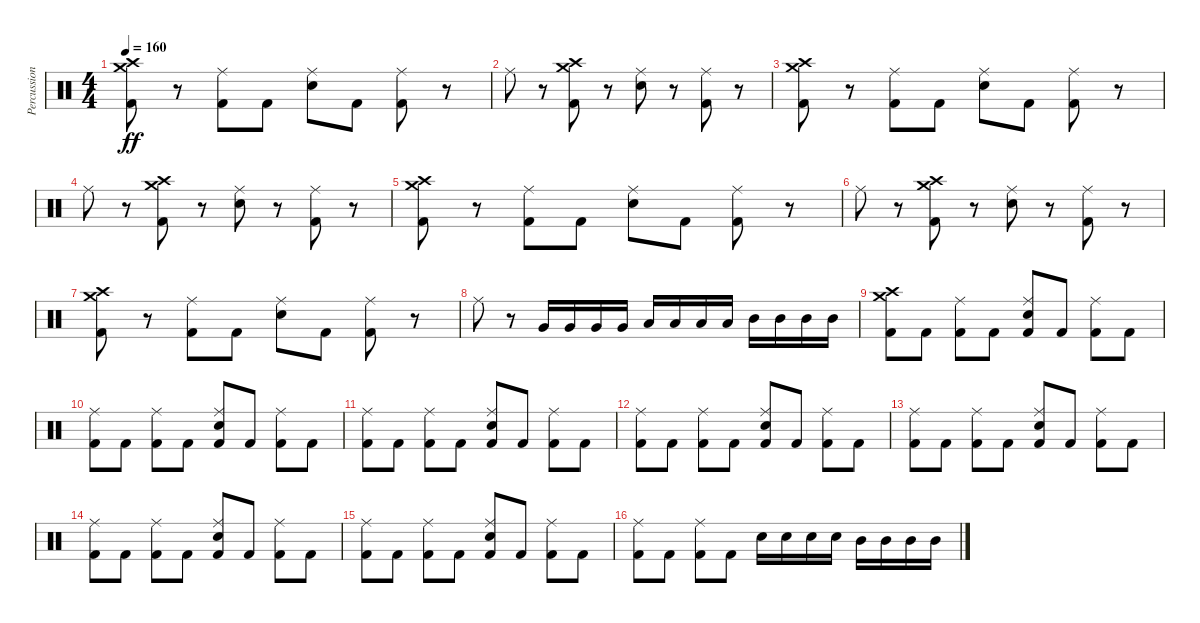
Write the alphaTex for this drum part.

\track ("Percussion" "Percussion") {instrument percussion}
\staff {score}
\articulation defaults
\ts (4 4)
\tempo 160
\clef neutral
\ks c
("Kick (hit) 2" "Crash high (hit)" "Crash medium (hit)").8{dy ff} r.8 ("Kick (hit) 2" "Ride (middle)").8 "Kick (hit) 2".8 ("Electric Snare (hit)" "Ride (middle)").8 "Kick (hit) 2".8 ("Kick (hit) 2" "Ride (middle)").8 r.8 |
"Ride (middle)".8 r.8 ("Kick (hit) 2" "Crash high (hit)" "Crash medium (hit)").8 r.8 ("Electric Snare (hit)" "Ride (middle)").8 r.8 ("Kick (hit) 2" "Ride (middle)").8 r.8 |
("Kick (hit) 2" "Crash high (hit)" "Crash medium (hit)").8 r.8 ("Kick (hit) 2" "Ride (middle)").8 "Kick (hit) 2".8 ("Electric Snare (hit)" "Ride (middle)").8 "Kick (hit) 2".8 ("Kick (hit) 2" "Ride (middle)").8 r.8 |
"Ride (middle)".8 r.8 ("Kick (hit) 2" "Crash high (hit)" "Crash medium (hit)").8 r.8 ("Electric Snare (hit)" "Ride (middle)").8 r.8 ("Kick (hit) 2" "Ride (middle)").8 r.8 |
("Kick (hit) 2" "Crash high (hit)" "Crash medium (hit)").8 r.8 ("Kick (hit) 2" "Ride (middle)").8 "Kick (hit) 2".8 ("Electric Snare (hit)" "Ride (middle)").8 "Kick (hit) 2".8 ("Kick (hit) 2" "Ride (middle)").8 r.8 |
"Ride (middle)".8 r.8 ("Kick (hit) 2" "Crash high (hit)" "Crash medium (hit)").8 r.8 ("Electric Snare (hit)" "Ride (middle)").8 r.8 ("Kick (hit) 2" "Ride (middle)").8 r.8 |
("Kick (hit) 2" "Crash high (hit)" "Crash medium (hit)").8 r.8 ("Kick (hit) 2" "Ride (middle)").8 "Kick (hit) 2".8 ("Electric Snare (hit)" "Ride (middle)").8 "Kick (hit) 2".8 ("Kick (hit) 2" "Ride (middle)").8 r.8 |
"Ride (middle)".8 r.8 "Very Low Tom (hit)".16 "Very Low Tom (hit)".16 "Very Low Tom (hit)".16 "Very Low Tom (hit)".16 "Low Tom (hit)".16 "Low Tom (hit)".16 "Low Tom (hit)".16 "Low Tom (hit)".16 "Mid Tom (hit)".16 "Mid Tom (hit)".16 "Mid Tom (hit)".16 "Mid Tom (hit)".16 |
("Kick (hit) 2" "Crash high (hit)" "Crash medium (hit)").8 "Kick (hit) 2".8 ("Kick (hit) 2" "Ride (middle)").8 "Kick (hit) 2".8 ("Kick (hit) 2" "Electric Snare (hit)" "Ride (middle)").8 "Kick (hit) 2".8 ("Kick (hit) 2" "Ride (middle)").8 "Kick (hit) 2".8 |
("Kick (hit) 2" "Ride (middle)").8 "Kick (hit) 2".8 ("Kick (hit) 2" "Ride (middle)").8 "Kick (hit) 2".8 ("Kick (hit) 2" "Electric Snare (hit)" "Ride (middle)").8 "Kick (hit) 2".8 ("Kick (hit) 2" "Ride (middle)").8 "Kick (hit) 2".8 |
("Kick (hit) 2" "Ride (middle)").8 "Kick (hit) 2".8 ("Kick (hit) 2" "Ride (middle)").8 "Kick (hit) 2".8 ("Kick (hit) 2" "Electric Snare (hit)" "Ride (middle)").8 "Kick (hit) 2".8 ("Kick (hit) 2" "Ride (middle)").8 "Kick (hit) 2".8 |
("Kick (hit) 2" "Ride (middle)").8 "Kick (hit) 2".8 ("Kick (hit) 2" "Ride (middle)").8 "Kick (hit) 2".8 ("Kick (hit) 2" "Electric Snare (hit)" "Ride (middle)").8 "Kick (hit) 2".8 ("Kick (hit) 2" "Ride (middle)").8 "Kick (hit) 2".8 |
("Kick (hit) 2" "Ride (middle)").8 "Kick (hit) 2".8 ("Kick (hit) 2" "Ride (middle)").8 "Kick (hit) 2".8 ("Kick (hit) 2" "Electric Snare (hit)" "Ride (middle)").8 "Kick (hit) 2".8 ("Kick (hit) 2" "Ride (middle)").8 "Kick (hit) 2".8 |
("Kick (hit) 2" "Ride (middle)").8 "Kick (hit) 2".8 ("Kick (hit) 2" "Ride (middle)").8 "Kick (hit) 2".8 ("Kick (hit) 2" "Electric Snare (hit)" "Ride (middle)").8 "Kick (hit) 2".8 ("Kick (hit) 2" "Ride (middle)").8 "Kick (hit) 2".8 |
("Kick (hit) 2" "Ride (middle)").8 "Kick (hit) 2".8 ("Kick (hit) 2" "Ride (middle)").8 "Kick (hit) 2".8 ("Kick (hit) 2" "Electric Snare (hit)" "Ride (middle)").8 "Kick (hit) 2".8 ("Kick (hit) 2" "Ride (middle)").8 "Kick (hit) 2".8 |
("Kick (hit) 2" "Ride (middle)").8 "Kick (hit) 2".8 ("Kick (hit) 2" "Ride (middle)").8 "Kick (hit) 2".8 "Electric Snare (hit)".16 "Electric Snare (hit)".16 "Electric Snare (hit)".16 "Electric Snare (hit)".16 "Mid Tom (hit)".16 "Mid Tom (hit)".16 "Mid Tom (hit)".16 "Mid Tom (hit)".16
